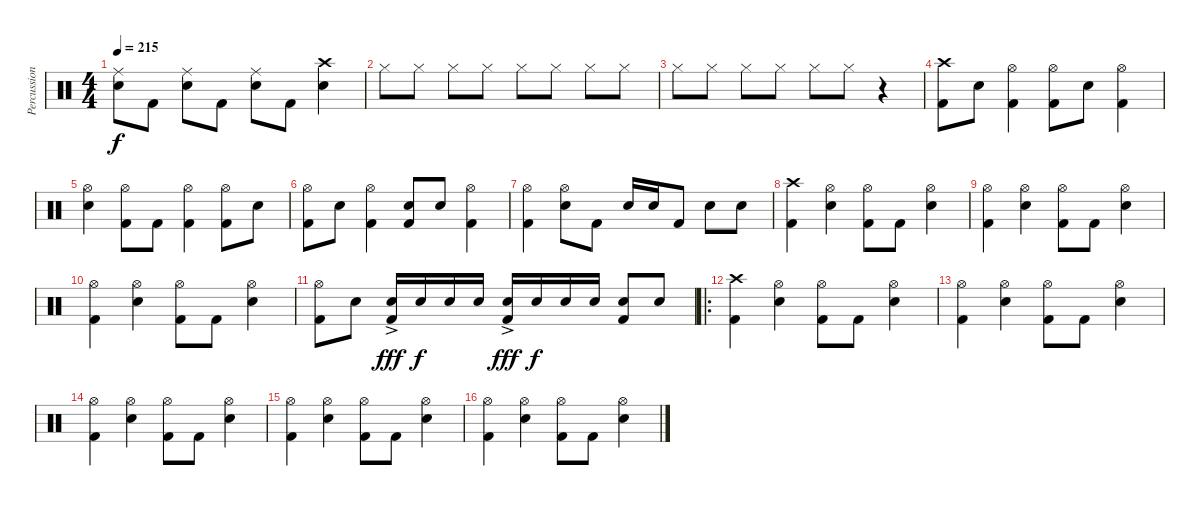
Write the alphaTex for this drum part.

\track ("Percussion" "Percussion") {instrument percussion}
\staff {score}
\articulation defaults
\ts (4 4)
\tempo 215
\clef neutral
\ks aminor
("Ride (middle)" "Snare (hit) 2").8{dy f} "Kick (hit) 2".8 ("Ride (middle)" "Snare (hit) 2").8 "Kick (hit) 2".8 ("Ride (middle)" "Snare (hit) 2").8 "Kick (hit) 2".8 ("Crash high (hit)" "Snare (hit) 2").4 |
"Hi-Hat (closed)".8 "Hi-Hat (closed)".8 "Hi-Hat (closed)".8 "Hi-Hat (closed)".8 "Hi-Hat (closed)".8 "Hi-Hat (closed)".8 "Hi-Hat (closed)".8 "Hi-Hat (closed)".8 |
"Hi-Hat (closed)".8 "Hi-Hat (closed)".8 "Hi-Hat (closed)".8 "Hi-Hat (closed)".8 "Hi-Hat (closed)".8 "Hi-Hat (closed)".8 r.4 |
("Crash high (hit)" "Kick (hit) 2").8 "Snare (hit) 2".8 ("Hi-Hat (open)" "Kick (hit) 2").4 ("Hi-Hat (open)" "Kick (hit) 2").8 "Snare (hit) 2".8 ("Hi-Hat (open)" "Kick (hit) 2").4 |
("Hi-Hat (open)" "Snare (hit) 2").4 ("Kick (hit) 2" "Hi-Hat (open)").8 "Kick (hit) 2".8 ("Hi-Hat (open)" "Kick (hit) 2").4 ("Kick (hit) 2" "Hi-Hat (open)").8 "Snare (hit) 2".8 |
("Hi-Hat (open)" "Kick (hit) 2").8 "Snare (hit) 2".8 ("Hi-Hat (open)" "Kick (hit) 2").4 ("Snare (hit) 2" "Kick (hit) 2").8 "Snare (hit) 2".8 ("Hi-Hat (open)" "Kick (hit) 2").4 |
("Hi-Hat (open)" "Kick (hit) 2").4 ("Hi-Hat (open)" "Snare (hit) 2").8 "Kick (hit) 2".8 "Snare (hit) 2".16 "Snare (hit) 2".16 "Kick (hit) 2".8 "Snare (hit) 2".8 "Snare (hit) 2".8 |
("Crash high (hit)" "Kick (hit) 2").4 ("Hi-Hat (open)" "Snare (hit) 2").4 ("Hi-Hat (open)" "Kick (hit) 2").8 "Kick (hit) 2".8 ("Hi-Hat (open)" "Snare (hit) 2").4 |
("Hi-Hat (open)" "Kick (hit) 2").4 ("Hi-Hat (open)" "Snare (hit) 2").4 ("Hi-Hat (open)" "Kick (hit) 2").8 "Kick (hit) 2".8 ("Hi-Hat (open)" "Snare (hit) 2").4 |
("Hi-Hat (open)" "Kick (hit) 2").4 ("Hi-Hat (open)" "Snare (hit) 2").4 ("Hi-Hat (open)" "Kick (hit) 2").8 "Kick (hit) 2".8 ("Hi-Hat (open)" "Snare (hit) 2").4 |
("Hi-Hat (open)" "Kick (hit) 2").8 "Snare (hit) 2".8 ("Snare (hit) 2"{ac} "Kick (hit) 2").16{dy fff} "Snare (hit) 2".16{dy f} "Snare (hit) 2".16 "Snare (hit) 2".16 ("Snare (hit) 2"{ac} "Kick (hit) 2").16{dy fff} "Snare (hit) 2".16{dy f} "Snare (hit) 2".16 "Snare (hit) 2".16 ("Snare (hit) 2" "Kick (hit) 2").8 "Snare (hit) 2".8 |
\ro
("Crash high (hit)" "Kick (hit) 2").4 ("Hi-Hat (open)" "Snare (hit) 2").4 ("Hi-Hat (open)" "Kick (hit) 2").8 "Kick (hit) 2".8 ("Hi-Hat (open)" "Snare (hit) 2").4 |
("Hi-Hat (open)" "Kick (hit) 2").4 ("Hi-Hat (open)" "Snare (hit) 2").4 ("Hi-Hat (open)" "Kick (hit) 2").8 "Kick (hit) 2".8 ("Hi-Hat (open)" "Snare (hit) 2").4 |
("Hi-Hat (open)" "Kick (hit) 2").4 ("Hi-Hat (open)" "Snare (hit) 2").4 ("Hi-Hat (open)" "Kick (hit) 2").8 "Kick (hit) 2".8 ("Hi-Hat (open)" "Snare (hit) 2").4 |
("Hi-Hat (open)" "Kick (hit) 2").4 ("Hi-Hat (open)" "Snare (hit) 2").4 ("Hi-Hat (open)" "Kick (hit) 2").8 "Kick (hit) 2".8 ("Hi-Hat (open)" "Snare (hit) 2").4 |
("Hi-Hat (open)" "Kick (hit) 2").4 ("Hi-Hat (open)" "Snare (hit) 2").4 ("Hi-Hat (open)" "Kick (hit) 2").8 "Kick (hit) 2".8 ("Hi-Hat (open)" "Snare (hit) 2").4
